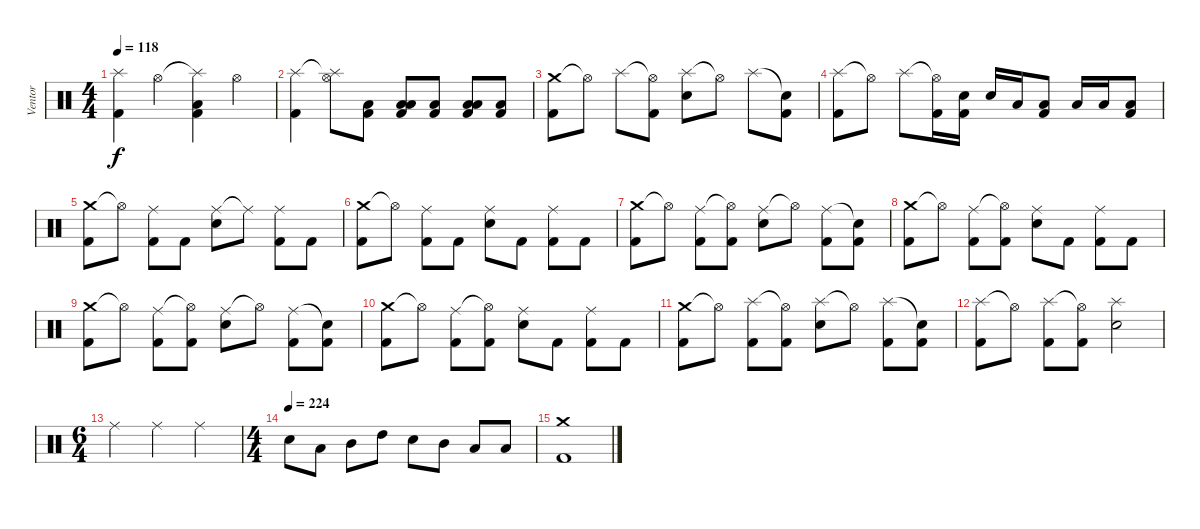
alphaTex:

\track ("Ventor" "Ventor") {instrument percussion}
\staff {score}
\articulation defaults
\ts (4 4)
\tempo 118
\clef neutral
\ks c
("Splash (hit)" "Kick (hit) 2").4{dy f} "Hi-Hat (open)".4 ("Splash (hit)"{t} "Low Floor Tom (hit)" "Kick (hit) 2").4 "Hi-Hat (open)".4 |
("Splash (hit)" "Kick (hit) 2").4 ("Splash (hit)"{t} "Hi-Hat (open)").8 ("Low Floor Tom (hit)" "Kick (hit) 2").8 ("Low Floor Tom (hit)" "Low Tom (hit)" "Kick (hit) 2").8 ("Low Floor Tom (hit)" "Kick (hit) 2").8 ("Low Floor Tom (hit)" "Low Tom (hit)" "Kick (hit) 2").8 ("Low Floor Tom (hit)" "Kick (hit) 2").8 |
("Crash medium (hit)" "Kick (hit) 2").8 "Hi-Hat (open)"{t}.8 "Splash (hit)".8 ("Hi-Hat (open)"{t} "Kick (hit) 2").8 ("Splash (hit)" "Electric Snare (hit)").8 "Hi-Hat (open)"{t}.8 "Splash (hit)".8 ("Snare (hit)"{t} "Kick (hit) 2").8 |
("Splash (hit)" "Kick (hit) 2").8 "Hi-Hat (open)"{t}.8 "Splash (hit)".8 ("Hi-Hat (open)"{t} "Kick (hit) 2").16 ("Electric Snare (hit)" "Kick (hit) 2").16 "Electric Snare (hit)".16 "Low Tom (hit)".16 ("Low Tom (hit)" "Kick (hit) 2").8 "Low Tom (hit)".16 "Low Tom (hit)".16 ("Low Floor Tom (hit)" "Kick (hit) 2").8 |
("Crash medium (hit)" "Kick (hit) 2").8 "Hi-Hat (open)"{t}.8 ("Ride (middle)" "Kick (hit) 2").8 "Kick (hit) 2".8 ("Ride (middle)" "Electric Snare (hit)").8 "Ride (middle)"{t}.8 ("Ride (middle)" "Kick (hit) 2").8 "Kick (hit) 2".8 |
("Crash medium (hit)" "Kick (hit) 2").8 "Hi-Hat (open)"{t}.8 ("Ride (middle)" "Kick (hit) 2").8 "Kick (hit) 2".8 ("Ride (middle)" "Electric Snare (hit)").8 "Kick (hit) 2".8 ("Ride (middle)" "Kick (hit) 2").8 "Kick (hit) 2".8 |
("Crash medium (hit)" "Kick (hit) 2").8 "Hi-Hat (open)"{t}.8 ("Ride (middle)" "Kick (hit) 2").8 ("Hi-Hat (open)"{t} "Kick (hit) 2").8 ("Ride (middle)" "Electric Snare (hit)").8 "Hi-Hat (open)"{t}.8 ("Ride (middle)" "Kick (hit) 2").8 ("Snare (hit)"{t} "Kick (hit) 2").8 |
("Crash medium (hit)" "Kick (hit) 2").8 "Hi-Hat (open)"{t}.8 ("Ride (middle)" "Kick (hit) 2").8 ("Hi-Hat (open)"{t} "Kick (hit) 2").8 ("Ride (middle)" "Electric Snare (hit)").8 "Kick (hit) 2".8 ("Ride (middle)" "Kick (hit) 2").8 "Kick (hit) 2".8 |
("Crash medium (hit)" "Kick (hit) 2").8 "Hi-Hat (open)"{t}.8 ("Ride (middle)" "Kick (hit) 2").8 ("Hi-Hat (open)"{t} "Kick (hit) 2").8 ("Ride (middle)" "Electric Snare (hit)").8 "Hi-Hat (open)"{t}.8 ("Ride (middle)" "Kick (hit) 2").8 ("Snare (hit)"{t} "Kick (hit) 2").8 |
("Crash medium (hit)" "Kick (hit) 2").8 "Hi-Hat (open)"{t}.8 ("Ride (middle)" "Kick (hit) 2").8 ("Hi-Hat (open)"{t} "Kick (hit) 2").8 ("Ride (middle)" "Electric Snare (hit)").8 "Kick (hit) 2".8 ("Ride (middle)" "Kick (hit) 2").8 "Kick (hit) 2".8 |
("Crash medium (hit)" "Kick (hit) 2").8 "Hi-Hat (open)"{t}.8 ("Splash (hit)" "Kick (hit) 2").8 ("Hi-Hat (open)"{t} "Kick (hit) 2").8 ("Splash (hit)" "Electric Snare (hit)").8 "Hi-Hat (open)"{t}.8 ("Splash (hit)" "Kick (hit) 2").8 ("Snare (hit)"{t} "Kick (hit) 2").8 |
("Splash (hit)" "Kick (hit) 2").8 "Hi-Hat (open)"{t}.8 ("Splash (hit)" "Kick (hit) 2").8 ("Hi-Hat (open)"{t} "Kick (hit) 2").8 ("Splash (hit)" "Electric Snare (hit)").2 |
\ts (6 4)
"Ride (middle)".2 "Ride (middle)".2 "Ride (middle)".2 |
\ts (4 4)
\tempo (224)
"Electric Snare (hit)".8 "Low Tom (hit)".8 "Mid Tom (hit)".8 "High Tom (hit)".8 "Electric Snare (hit)".8 "Mid Tom (hit)".8 "Low Tom (hit)".8 "Low Floor Tom (hit)".8 |
("Crash medium (hit)" "Kick (hit) 2").1
